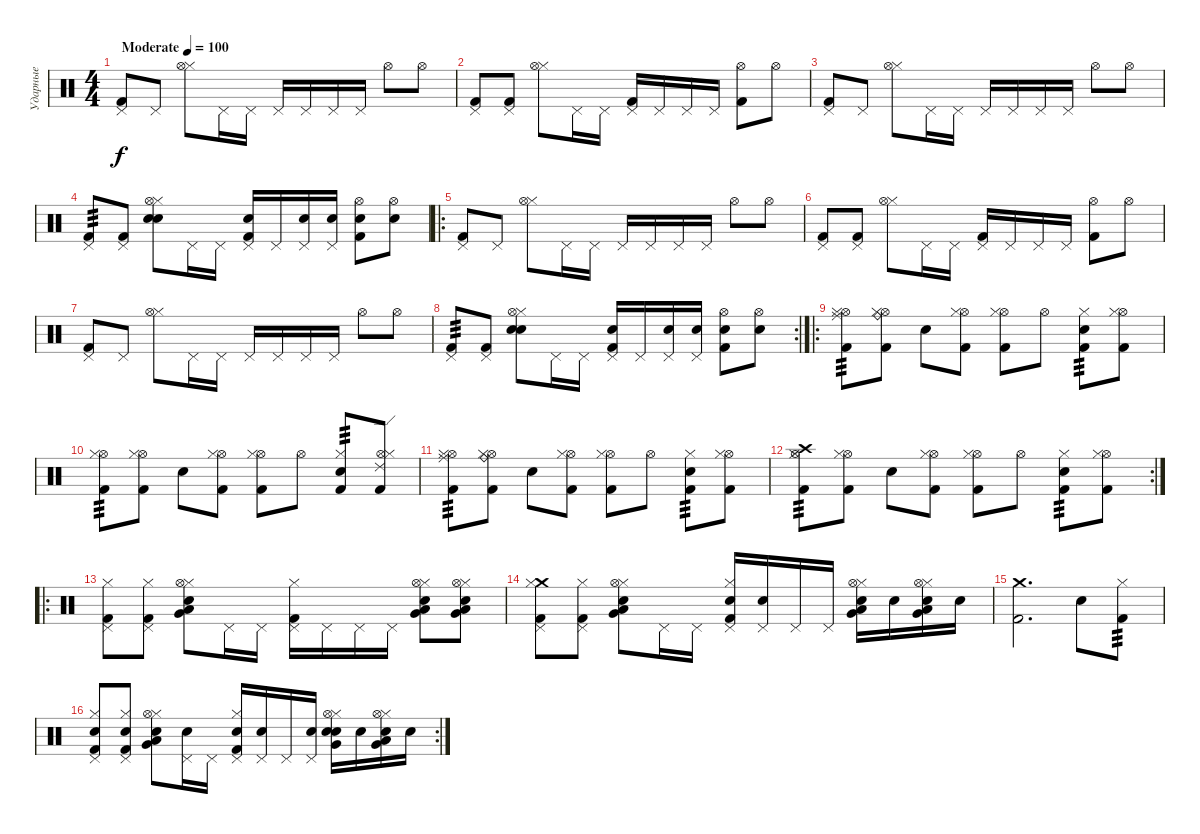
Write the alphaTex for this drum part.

\track ("Ударные" "Ударные") {instrument percussion}
\staff {score}
\articulation defaults
\ts (4 4)
\tempo (100 "Moderate")
\clef neutral
\ks c
("Pedal Hi-Hat (hit)" "Kick (hit) 2").8{dy f} "Pedal Hi-Hat (hit)".8 ("Hi-Hat (closed)" "Hi-Hat (open)").8 "Pedal Hi-Hat (hit)".16 "Pedal Hi-Hat (hit)".16 "Pedal Hi-Hat (hit)".16 "Pedal Hi-Hat (hit)".16 "Pedal Hi-Hat (hit)".16 "Pedal Hi-Hat (hit)".16 "Hi-Hat (open)".8 "Hi-Hat (open)".8 |
("Pedal Hi-Hat (hit)" "Kick (hit) 2").8 ("Pedal Hi-Hat (hit)" "Kick (hit) 2").8 ("Hi-Hat (closed)" "Hi-Hat (open)").8 "Pedal Hi-Hat (hit)".16 "Pedal Hi-Hat (hit)".16 ("Pedal Hi-Hat (hit)" "Kick (hit) 2").16 "Pedal Hi-Hat (hit)".16 "Pedal Hi-Hat (hit)".16 "Pedal Hi-Hat (hit)".16 ("Hi-Hat (open)" "Kick (hit) 2").8 "Hi-Hat (open)".8 |
("Pedal Hi-Hat (hit)" "Kick (hit) 2").8 "Pedal Hi-Hat (hit)".8 ("Hi-Hat (closed)" "Hi-Hat (open)").8 "Pedal Hi-Hat (hit)".16 "Pedal Hi-Hat (hit)".16 "Pedal Hi-Hat (hit)".16 "Pedal Hi-Hat (hit)".16 "Pedal Hi-Hat (hit)".16 "Pedal Hi-Hat (hit)".16 "Hi-Hat (open)".8 "Hi-Hat (open)".8 |
("Pedal Hi-Hat (hit)" "Kick (hit) 2").8{tp 3} ("Pedal Hi-Hat (hit)" "Kick (hit) 2").8 ("Hi-Hat (closed)" "Hi-Hat (open)" "Electric Snare (hit)" "Snare (hit) 2").8 "Pedal Hi-Hat (hit)".16 "Pedal Hi-Hat (hit)".16 ("Pedal Hi-Hat (hit)" "Snare (hit) 2" "Kick (hit) 2").16 "Pedal Hi-Hat (hit)".16 ("Pedal Hi-Hat (hit)" "Snare (hit) 2").16 ("Pedal Hi-Hat (hit)" "Snare (hit) 2").16 ("Hi-Hat (open)" "Snare (hit) 2" "Kick (hit) 2").8 ("Hi-Hat (open)" "Snare (hit) 2").8 |
\ro
("Pedal Hi-Hat (hit)" "Kick (hit) 2").8 "Pedal Hi-Hat (hit)".8 ("Hi-Hat (closed)" "Hi-Hat (open)").8 "Pedal Hi-Hat (hit)".16 "Pedal Hi-Hat (hit)".16 "Pedal Hi-Hat (hit)".16 "Pedal Hi-Hat (hit)".16 "Pedal Hi-Hat (hit)".16 "Pedal Hi-Hat (hit)".16 "Hi-Hat (open)".8 "Hi-Hat (open)".8 |
("Pedal Hi-Hat (hit)" "Kick (hit) 2").8 ("Pedal Hi-Hat (hit)" "Kick (hit) 2").8 ("Hi-Hat (closed)" "Hi-Hat (open)").8 "Pedal Hi-Hat (hit)".16 "Pedal Hi-Hat (hit)".16 ("Pedal Hi-Hat (hit)" "Kick (hit) 2").16 "Pedal Hi-Hat (hit)".16 "Pedal Hi-Hat (hit)".16 "Pedal Hi-Hat (hit)".16 ("Hi-Hat (open)" "Kick (hit) 2").8 "Hi-Hat (open)".8 |
("Pedal Hi-Hat (hit)" "Kick (hit) 2").8 "Pedal Hi-Hat (hit)".8 ("Hi-Hat (closed)" "Hi-Hat (open)").8 "Pedal Hi-Hat (hit)".16 "Pedal Hi-Hat (hit)".16 "Pedal Hi-Hat (hit)".16 "Pedal Hi-Hat (hit)".16 "Pedal Hi-Hat (hit)".16 "Pedal Hi-Hat (hit)".16 "Hi-Hat (open)".8 "Hi-Hat (open)".8 |
\rc 2
("Pedal Hi-Hat (hit)" "Kick (hit) 2").8{tp 3} ("Pedal Hi-Hat (hit)" "Kick (hit) 2").8 ("Hi-Hat (closed)" "Hi-Hat (open)" "Electric Snare (hit)" "Snare (hit) 2").8 "Pedal Hi-Hat (hit)".16 "Pedal Hi-Hat (hit)".16 ("Pedal Hi-Hat (hit)" "Snare (hit) 2" "Kick (hit) 2").16 "Pedal Hi-Hat (hit)".16 ("Pedal Hi-Hat (hit)" "Snare (hit) 2").16 ("Pedal Hi-Hat (hit)" "Snare (hit) 2").16 ("Hi-Hat (open)" "Snare (hit) 2" "Kick (hit) 2").8 ("Hi-Hat (open)" "Snare (hit) 2").8 |
\ro
("Ride (middle)" "Hi-Hat (open)" "Hi-Hat (closed)" "Kick (hit) 2").8{tp 3} ("Ride (bell)" "Hi-Hat (open)" "Kick (hit) 2" "Hi-Hat (closed)").8 "Snare (hit) 2".8 ("Hi-Hat (open)" "Kick (hit) 2" "Hi-Hat (closed)").8 ("Hi-Hat (open)" "Kick (hit) 2" "Hi-Hat (closed)").8 "Hi-Hat (open)".8 ("Snare (hit) 2" "Kick (hit) 2" "Hi-Hat (closed)").8{tp 3} ("Hi-Hat (open)" "Kick (hit) 2" "Hi-Hat (closed)").8 |
("Hi-Hat (open)" "Hi-Hat (closed)" "Kick (hit) 2").8{tp 3} ("Hi-Hat (open)" "Kick (hit) 2" "Hi-Hat (closed)").8 "Snare (hit) 2".8 ("Hi-Hat (open)" "Kick (hit) 2" "Hi-Hat (closed)").8 ("Hi-Hat (open)" "Kick (hit) 2" "Hi-Hat (closed)").8 "Hi-Hat (open)".8 ("Snare (hit) 2" "Kick (hit) 2" "Hi-Hat (closed)").8{tp 3} ("Ride (edge) 2" "Hi-Hat (open)" "Kick (hit) 2" "Hi-Hat (closed)").8 |
("Ride (middle)" "Hi-Hat (open)" "Hi-Hat (closed)" "Kick (hit) 2").8{tp 3} ("Ride (bell)" "Hi-Hat (open)" "Kick (hit) 2" "Hi-Hat (closed)").8 "Snare (hit) 2".8 ("Hi-Hat (open)" "Kick (hit) 2" "Hi-Hat (closed)").8 ("Hi-Hat (open)" "Kick (hit) 2" "Hi-Hat (closed)").8 "Hi-Hat (open)".8 ("Snare (hit) 2" "Kick (hit) 2" "Hi-Hat (closed)").8{tp 3} ("Hi-Hat (open)" "Kick (hit) 2" "Hi-Hat (closed)").8 |
\rc 2
("Crash high (hit)" "Hi-Hat (open)" "Hi-Hat (closed)" "Kick (hit) 2").8{tp 3} ("Hi-Hat (open)" "Kick (hit) 2" "Hi-Hat (closed)").8 "Snare (hit) 2".8 ("Hi-Hat (open)" "Kick (hit) 2" "Hi-Hat (closed)").8 ("Hi-Hat (open)" "Kick (hit) 2" "Hi-Hat (closed)").8 "Hi-Hat (open)".8 ("Snare (hit) 2" "Kick (hit) 2" "Hi-Hat (closed)").8{tp 3} ("Hi-Hat (open)" "Kick (hit) 2" "Hi-Hat (closed)").8 |
\ro
("Pedal Hi-Hat (hit)" "Hi-Hat (closed)" "Kick (hit) 2").8 ("Pedal Hi-Hat (hit)" "Hi-Hat (closed)" "Kick (hit) 2").8 ("Hi-Hat (closed)" "Hi-Hat (open)" "Low Floor Tom (hit)" "Very Low Tom (hit)" "Snare (hit) 2").8 "Pedal Hi-Hat (hit)".16 "Pedal Hi-Hat (hit)".16 ("Pedal Hi-Hat (hit)" "Kick (hit) 2" "Hi-Hat (closed)").16 "Pedal Hi-Hat (hit)".16 "Pedal Hi-Hat (hit)".16 "Pedal Hi-Hat (hit)".16 ("Hi-Hat (closed)" "Hi-Hat (open)" "Low Floor Tom (hit)" "Very Low Tom (hit)" "Snare (hit) 2").8 ("Hi-Hat (closed)" "Hi-Hat (open)" "Low Floor Tom (hit)" "Very Low Tom (hit)" "Snare (hit) 2").8 |
("Pedal Hi-Hat (hit)" "Crash medium (hit)" "Hi-Hat (closed)" "Kick (hit) 2").8 ("Pedal Hi-Hat (hit)" "Hi-Hat (closed)" "Kick (hit) 2").8 ("Hi-Hat (closed)" "Hi-Hat (open)" "Low Floor Tom (hit)" "Very Low Tom (hit)" "Snare (hit) 2").8 "Pedal Hi-Hat (hit)".16 "Pedal Hi-Hat (hit)".16 ("Pedal Hi-Hat (hit)" "Snare (hit) 2" "Kick (hit) 2" "Hi-Hat (closed)").16 ("Pedal Hi-Hat (hit)" "Snare (hit) 2").16 "Pedal Hi-Hat (hit)".16 "Pedal Hi-Hat (hit)".16 ("Hi-Hat (closed)" "Hi-Hat (open)" "Low Floor Tom (hit)" "Very Low Tom (hit)" "Snare (hit) 2").16 "Snare (hit) 2".16 ("Hi-Hat (closed)" "Hi-Hat (open)" "Low Floor Tom (hit)" "Very Low Tom (hit)" "Snare (hit) 2").16 "Snare (hit) 2".16 |
("Crash medium (hit)" "Kick (hit) 2").2{d} "Electric Snare (hit)".8 ("Hi-Hat (closed)" "Kick (hit) 2").8{tp 3} |
\rc 2
("Pedal Hi-Hat (hit)" "Snare (hit) 2" "Hi-Hat (closed)" "Kick (hit) 2").8 ("Pedal Hi-Hat (hit)" "Snare (hit) 2" "Hi-Hat (closed)" "Kick (hit) 2").8 ("Hi-Hat (closed)" "Hi-Hat (open)" "Low Floor Tom (hit)" "Very Low Tom (hit)" "Snare (hit) 2").8 ("Pedal Hi-Hat (hit)" "Snare (hit) 2").16 "Pedal Hi-Hat (hit)".16 ("Pedal Hi-Hat (hit)" "Snare (hit) 2" "Kick (hit) 2" "Hi-Hat (closed)").16 ("Pedal Hi-Hat (hit)" "Snare (hit) 2").16 "Pedal Hi-Hat (hit)".16 ("Pedal Hi-Hat (hit)" "Snare (hit) 2").16 ("Hi-Hat (closed)" "Hi-Hat (open)" "Snare (hit)" "Very Low Tom (hit)" "Snare (hit) 2").16 "Snare (hit) 2".16 ("Hi-Hat (closed)" "Hi-Hat (open)" "Low Floor Tom (hit)" "Very Low Tom (hit)" "Snare (hit) 2").16 "Snare (hit) 2".16
